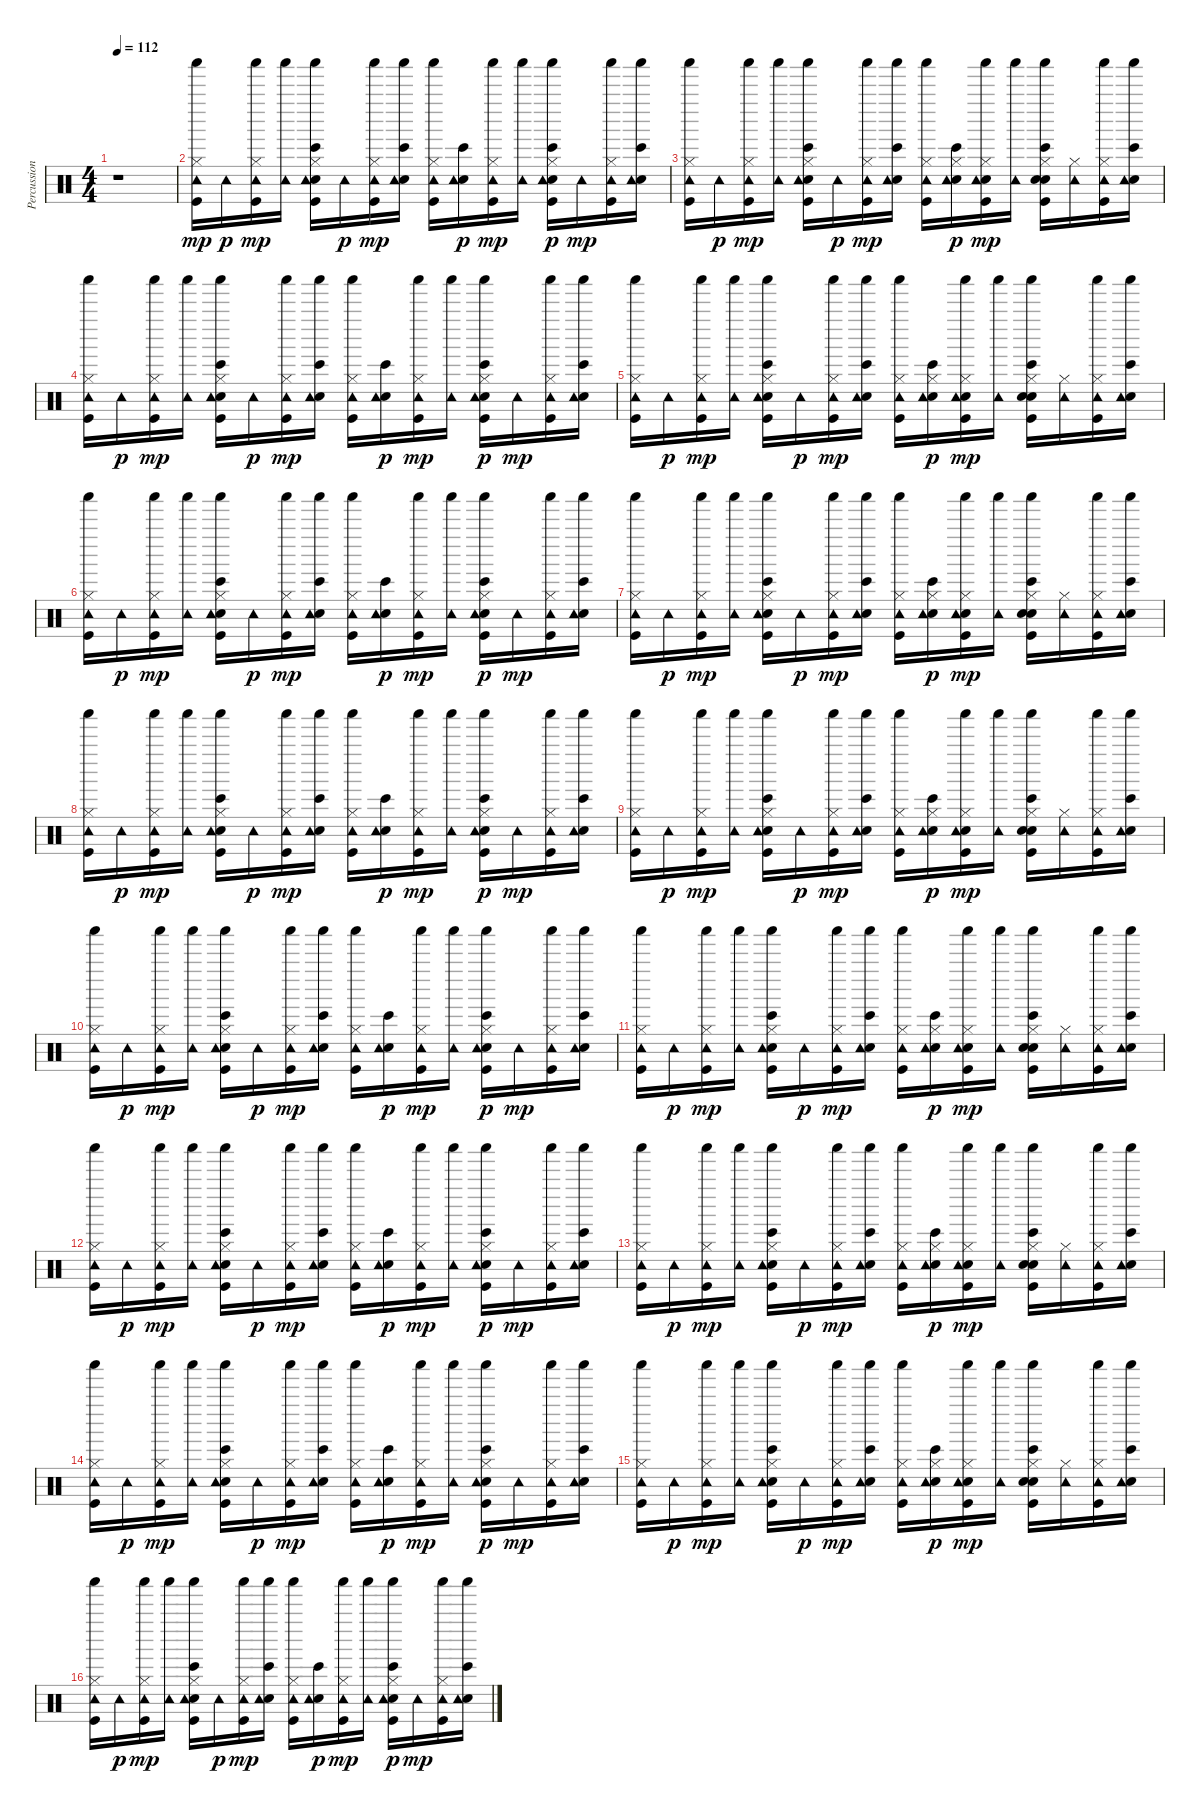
\track ("Percussioni" "Percussion") {instrument percussion}
\staff {score}
\articulation defaults
\ts (4 4)
\tempo 112
\clef neutral
\ks c
r.1{dy mp} |
("Kick (hit)" "Hi-Hat (closed)" "Tambourine (hit)" "Shaker (hit)").16 "Tambourine (hit)".16{dy p} ("Kick (hit)" "Hi-Hat (closed)" "Tambourine (hit)" "Shaker (hit)").16{dy mp} ("Tambourine (hit)" "Shaker (hit)").16 ("Bongo High (hit)" "Kick (hit)" "Electric Snare (hit)" "Hi-Hat (closed)" "Tambourine (hit)" "Shaker (hit)").16 "Tambourine (hit)".16{dy p} ("Kick (hit)" "Hi-Hat (closed)" "Tambourine (hit)" "Shaker (hit)").16{dy mp} ("Bongo High (hit)" "Electric Snare (hit)" "Tambourine (hit)" "Shaker (hit)").16 ("Kick (hit)" "Hi-Hat (closed)" "Tambourine (hit)" "Shaker (hit)").16 ("Bongo High (hit)" "Electric Snare (hit)" "Tambourine (hit)").16{dy p} ("Kick (hit)" "Hi-Hat (closed)" "Tambourine (hit)" "Shaker (hit)").16{dy mp} ("Tambourine (hit)" "Shaker (hit)").16 ("Bongo High (hit)" "Kick (hit)" "Electric Snare (hit)" "Hi-Hat (closed)" "Shaker (hit)" "Tambourine (hit)").16{dy p} "Tambourine (hit)".16{dy mp} ("Kick (hit)" "Hi-Hat (closed)" "Tambourine (hit)" "Shaker (hit)").16 ("Bongo High (hit)" "Electric Snare (hit)" "Tambourine (hit)" "Shaker (hit)").16 |
("Kick (hit)" "Hi-Hat (closed)" "Tambourine (hit)" "Shaker (hit)").16 "Tambourine (hit)".16{dy p} ("Kick (hit)" "Hi-Hat (closed)" "Tambourine (hit)" "Shaker (hit)").16{dy mp} ("Tambourine (hit)" "Shaker (hit)").16 ("Bongo High (hit)" "Kick (hit)" "Electric Snare (hit)" "Hi-Hat (closed)" "Tambourine (hit)" "Shaker (hit)").16 "Tambourine (hit)".16{dy p} ("Kick (hit)" "Hi-Hat (closed)" "Tambourine (hit)" "Shaker (hit)").16{dy mp} ("Bongo High (hit)" "Electric Snare (hit)" "Tambourine (hit)" "Shaker (hit)").16 ("Kick (hit)" "Hi-Hat (closed)" "Tambourine (hit)" "Shaker (hit)").16 ("Bongo High (hit)" "Electric Snare (hit)" "Hi-Hat (closed)" "Tambourine (hit)").16{dy p} ("Kick (hit)" "Hand Clap (hit)" "Hi-Hat (closed)" "Tambourine (hit)" "Shaker (hit)").16{dy mp} ("Tambourine (hit)" "Shaker (hit)").16 ("Bongo High (hit)" "Kick (hit)" "Hand Clap (hit)" "Electric Snare (hit)" "Hi-Hat (closed)" "Shaker (hit)").16 ("Hi-Hat (closed)" "Tambourine (hit)").16 ("Kick (hit)" "Hi-Hat (closed)" "Tambourine (hit)" "Shaker (hit)").16 ("Bongo High (hit)" "Electric Snare (hit)" "Tambourine (hit)" "Shaker (hit)").16 |
("Kick (hit)" "Hi-Hat (closed)" "Tambourine (hit)" "Shaker (hit)").16 "Tambourine (hit)".16{dy p} ("Kick (hit)" "Hi-Hat (closed)" "Tambourine (hit)" "Shaker (hit)").16{dy mp} ("Tambourine (hit)" "Shaker (hit)").16 ("Bongo High (hit)" "Kick (hit)" "Electric Snare (hit)" "Hi-Hat (closed)" "Tambourine (hit)" "Shaker (hit)").16 "Tambourine (hit)".16{dy p} ("Kick (hit)" "Hi-Hat (closed)" "Tambourine (hit)" "Shaker (hit)").16{dy mp} ("Bongo High (hit)" "Electric Snare (hit)" "Tambourine (hit)" "Shaker (hit)").16 ("Kick (hit)" "Hi-Hat (closed)" "Tambourine (hit)" "Shaker (hit)").16 ("Bongo High (hit)" "Electric Snare (hit)" "Tambourine (hit)").16{dy p} ("Kick (hit)" "Hi-Hat (closed)" "Tambourine (hit)" "Shaker (hit)").16{dy mp} ("Tambourine (hit)" "Shaker (hit)").16 ("Bongo High (hit)" "Kick (hit)" "Electric Snare (hit)" "Hi-Hat (closed)" "Shaker (hit)" "Tambourine (hit)").16{dy p} "Tambourine (hit)".16{dy mp} ("Kick (hit)" "Hi-Hat (closed)" "Tambourine (hit)" "Shaker (hit)").16 ("Bongo High (hit)" "Electric Snare (hit)" "Tambourine (hit)" "Shaker (hit)").16 |
("Kick (hit)" "Hi-Hat (closed)" "Tambourine (hit)" "Shaker (hit)").16 "Tambourine (hit)".16{dy p} ("Kick (hit)" "Hi-Hat (closed)" "Tambourine (hit)" "Shaker (hit)").16{dy mp} ("Tambourine (hit)" "Shaker (hit)").16 ("Bongo High (hit)" "Kick (hit)" "Electric Snare (hit)" "Hi-Hat (closed)" "Tambourine (hit)" "Shaker (hit)").16 "Tambourine (hit)".16{dy p} ("Kick (hit)" "Hi-Hat (closed)" "Tambourine (hit)" "Shaker (hit)").16{dy mp} ("Bongo High (hit)" "Electric Snare (hit)" "Tambourine (hit)" "Shaker (hit)").16 ("Kick (hit)" "Hi-Hat (closed)" "Tambourine (hit)" "Shaker (hit)").16 ("Bongo High (hit)" "Electric Snare (hit)" "Hi-Hat (closed)" "Tambourine (hit)").16{dy p} ("Kick (hit)" "Hand Clap (hit)" "Hi-Hat (closed)" "Tambourine (hit)" "Shaker (hit)").16{dy mp} ("Tambourine (hit)" "Shaker (hit)").16 ("Bongo High (hit)" "Kick (hit)" "Hand Clap (hit)" "Electric Snare (hit)" "Hi-Hat (closed)" "Shaker (hit)").16 ("Hi-Hat (closed)" "Tambourine (hit)").16 ("Kick (hit)" "Hi-Hat (closed)" "Tambourine (hit)" "Shaker (hit)").16 ("Bongo High (hit)" "Electric Snare (hit)" "Tambourine (hit)" "Shaker (hit)").16 |
("Kick (hit)" "Hi-Hat (closed)" "Tambourine (hit)" "Shaker (hit)").16 "Tambourine (hit)".16{dy p} ("Kick (hit)" "Hi-Hat (closed)" "Tambourine (hit)" "Shaker (hit)").16{dy mp} ("Tambourine (hit)" "Shaker (hit)").16 ("Bongo High (hit)" "Kick (hit)" "Electric Snare (hit)" "Hi-Hat (closed)" "Tambourine (hit)" "Shaker (hit)").16 "Tambourine (hit)".16{dy p} ("Kick (hit)" "Hi-Hat (closed)" "Tambourine (hit)" "Shaker (hit)").16{dy mp} ("Bongo High (hit)" "Electric Snare (hit)" "Tambourine (hit)" "Shaker (hit)").16 ("Kick (hit)" "Hi-Hat (closed)" "Tambourine (hit)" "Shaker (hit)").16 ("Bongo High (hit)" "Electric Snare (hit)" "Tambourine (hit)").16{dy p} ("Kick (hit)" "Hi-Hat (closed)" "Tambourine (hit)" "Shaker (hit)").16{dy mp} ("Tambourine (hit)" "Shaker (hit)").16 ("Bongo High (hit)" "Kick (hit)" "Electric Snare (hit)" "Hi-Hat (closed)" "Shaker (hit)" "Tambourine (hit)").16{dy p} "Tambourine (hit)".16{dy mp} ("Kick (hit)" "Hi-Hat (closed)" "Tambourine (hit)" "Shaker (hit)").16 ("Bongo High (hit)" "Electric Snare (hit)" "Tambourine (hit)" "Shaker (hit)").16 |
("Kick (hit)" "Hi-Hat (closed)" "Tambourine (hit)" "Shaker (hit)").16 "Tambourine (hit)".16{dy p} ("Kick (hit)" "Hi-Hat (closed)" "Tambourine (hit)" "Shaker (hit)").16{dy mp} ("Tambourine (hit)" "Shaker (hit)").16 ("Bongo High (hit)" "Kick (hit)" "Electric Snare (hit)" "Hi-Hat (closed)" "Tambourine (hit)" "Shaker (hit)").16 "Tambourine (hit)".16{dy p} ("Kick (hit)" "Hi-Hat (closed)" "Tambourine (hit)" "Shaker (hit)").16{dy mp} ("Bongo High (hit)" "Electric Snare (hit)" "Tambourine (hit)" "Shaker (hit)").16 ("Kick (hit)" "Hi-Hat (closed)" "Tambourine (hit)" "Shaker (hit)").16 ("Bongo High (hit)" "Electric Snare (hit)" "Hi-Hat (closed)" "Tambourine (hit)").16{dy p} ("Kick (hit)" "Hand Clap (hit)" "Hi-Hat (closed)" "Tambourine (hit)" "Shaker (hit)").16{dy mp} ("Tambourine (hit)" "Shaker (hit)").16 ("Bongo High (hit)" "Kick (hit)" "Hand Clap (hit)" "Electric Snare (hit)" "Hi-Hat (closed)" "Shaker (hit)").16 ("Hi-Hat (closed)" "Tambourine (hit)").16 ("Kick (hit)" "Hi-Hat (closed)" "Tambourine (hit)" "Shaker (hit)").16 ("Bongo High (hit)" "Electric Snare (hit)" "Tambourine (hit)" "Shaker (hit)").16 |
("Kick (hit)" "Hi-Hat (closed)" "Tambourine (hit)" "Shaker (hit)").16 "Tambourine (hit)".16{dy p} ("Kick (hit)" "Hi-Hat (closed)" "Tambourine (hit)" "Shaker (hit)").16{dy mp} ("Tambourine (hit)" "Shaker (hit)").16 ("Bongo High (hit)" "Kick (hit)" "Electric Snare (hit)" "Hi-Hat (closed)" "Tambourine (hit)" "Shaker (hit)").16 "Tambourine (hit)".16{dy p} ("Kick (hit)" "Hi-Hat (closed)" "Tambourine (hit)" "Shaker (hit)").16{dy mp} ("Bongo High (hit)" "Electric Snare (hit)" "Tambourine (hit)" "Shaker (hit)").16 ("Kick (hit)" "Hi-Hat (closed)" "Tambourine (hit)" "Shaker (hit)").16 ("Bongo High (hit)" "Electric Snare (hit)" "Tambourine (hit)").16{dy p} ("Kick (hit)" "Hi-Hat (closed)" "Tambourine (hit)" "Shaker (hit)").16{dy mp} ("Tambourine (hit)" "Shaker (hit)").16 ("Bongo High (hit)" "Kick (hit)" "Electric Snare (hit)" "Hi-Hat (closed)" "Shaker (hit)" "Tambourine (hit)").16{dy p} "Tambourine (hit)".16{dy mp} ("Kick (hit)" "Hi-Hat (closed)" "Tambourine (hit)" "Shaker (hit)").16 ("Bongo High (hit)" "Electric Snare (hit)" "Tambourine (hit)" "Shaker (hit)").16 |
("Kick (hit)" "Hi-Hat (closed)" "Tambourine (hit)" "Shaker (hit)").16 "Tambourine (hit)".16{dy p} ("Kick (hit)" "Hi-Hat (closed)" "Tambourine (hit)" "Shaker (hit)").16{dy mp} ("Tambourine (hit)" "Shaker (hit)").16 ("Bongo High (hit)" "Kick (hit)" "Electric Snare (hit)" "Hi-Hat (closed)" "Tambourine (hit)" "Shaker (hit)").16 "Tambourine (hit)".16{dy p} ("Kick (hit)" "Hi-Hat (closed)" "Tambourine (hit)" "Shaker (hit)").16{dy mp} ("Bongo High (hit)" "Electric Snare (hit)" "Tambourine (hit)" "Shaker (hit)").16 ("Kick (hit)" "Hi-Hat (closed)" "Tambourine (hit)" "Shaker (hit)").16 ("Bongo High (hit)" "Electric Snare (hit)" "Hi-Hat (closed)" "Tambourine (hit)").16{dy p} ("Kick (hit)" "Hand Clap (hit)" "Hi-Hat (closed)" "Tambourine (hit)" "Shaker (hit)").16{dy mp} ("Tambourine (hit)" "Shaker (hit)").16 ("Bongo High (hit)" "Kick (hit)" "Hand Clap (hit)" "Electric Snare (hit)" "Hi-Hat (closed)" "Shaker (hit)").16 ("Hi-Hat (closed)" "Tambourine (hit)").16 ("Kick (hit)" "Hi-Hat (closed)" "Tambourine (hit)" "Shaker (hit)").16 ("Bongo High (hit)" "Electric Snare (hit)" "Tambourine (hit)" "Shaker (hit)").16 |
("Kick (hit)" "Hi-Hat (closed)" "Tambourine (hit)" "Shaker (hit)").16 "Tambourine (hit)".16{dy p} ("Kick (hit)" "Hi-Hat (closed)" "Tambourine (hit)" "Shaker (hit)").16{dy mp} ("Tambourine (hit)" "Shaker (hit)").16 ("Bongo High (hit)" "Kick (hit)" "Electric Snare (hit)" "Hi-Hat (closed)" "Tambourine (hit)" "Shaker (hit)").16 "Tambourine (hit)".16{dy p} ("Kick (hit)" "Hi-Hat (closed)" "Tambourine (hit)" "Shaker (hit)").16{dy mp} ("Bongo High (hit)" "Electric Snare (hit)" "Tambourine (hit)" "Shaker (hit)").16 ("Kick (hit)" "Hi-Hat (closed)" "Tambourine (hit)" "Shaker (hit)").16 ("Bongo High (hit)" "Electric Snare (hit)" "Tambourine (hit)").16{dy p} ("Kick (hit)" "Hi-Hat (closed)" "Tambourine (hit)" "Shaker (hit)").16{dy mp} ("Tambourine (hit)" "Shaker (hit)").16 ("Bongo High (hit)" "Kick (hit)" "Electric Snare (hit)" "Hi-Hat (closed)" "Shaker (hit)" "Tambourine (hit)").16{dy p} "Tambourine (hit)".16{dy mp} ("Kick (hit)" "Hi-Hat (closed)" "Tambourine (hit)" "Shaker (hit)").16 ("Bongo High (hit)" "Electric Snare (hit)" "Tambourine (hit)" "Shaker (hit)").16 |
("Kick (hit)" "Hi-Hat (closed)" "Tambourine (hit)" "Shaker (hit)").16 "Tambourine (hit)".16{dy p} ("Kick (hit)" "Hi-Hat (closed)" "Tambourine (hit)" "Shaker (hit)").16{dy mp} ("Tambourine (hit)" "Shaker (hit)").16 ("Bongo High (hit)" "Kick (hit)" "Electric Snare (hit)" "Hi-Hat (closed)" "Tambourine (hit)" "Shaker (hit)").16 "Tambourine (hit)".16{dy p} ("Kick (hit)" "Hi-Hat (closed)" "Tambourine (hit)" "Shaker (hit)").16{dy mp} ("Bongo High (hit)" "Electric Snare (hit)" "Tambourine (hit)" "Shaker (hit)").16 ("Kick (hit)" "Hi-Hat (closed)" "Tambourine (hit)" "Shaker (hit)").16 ("Bongo High (hit)" "Electric Snare (hit)" "Hi-Hat (closed)" "Tambourine (hit)").16{dy p} ("Kick (hit)" "Hand Clap (hit)" "Hi-Hat (closed)" "Tambourine (hit)" "Shaker (hit)").16{dy mp} ("Tambourine (hit)" "Shaker (hit)").16 ("Bongo High (hit)" "Kick (hit)" "Hand Clap (hit)" "Electric Snare (hit)" "Hi-Hat (closed)" "Shaker (hit)").16 ("Hi-Hat (closed)" "Tambourine (hit)").16 ("Kick (hit)" "Hi-Hat (closed)" "Tambourine (hit)" "Shaker (hit)").16 ("Bongo High (hit)" "Electric Snare (hit)" "Tambourine (hit)" "Shaker (hit)").16 |
("Kick (hit)" "Hi-Hat (closed)" "Tambourine (hit)" "Shaker (hit)").16 "Tambourine (hit)".16{dy p} ("Kick (hit)" "Hi-Hat (closed)" "Tambourine (hit)" "Shaker (hit)").16{dy mp} ("Tambourine (hit)" "Shaker (hit)").16 ("Bongo High (hit)" "Kick (hit)" "Electric Snare (hit)" "Hi-Hat (closed)" "Tambourine (hit)" "Shaker (hit)").16 "Tambourine (hit)".16{dy p} ("Kick (hit)" "Hi-Hat (closed)" "Tambourine (hit)" "Shaker (hit)").16{dy mp} ("Bongo High (hit)" "Electric Snare (hit)" "Tambourine (hit)" "Shaker (hit)").16 ("Kick (hit)" "Hi-Hat (closed)" "Tambourine (hit)" "Shaker (hit)").16 ("Bongo High (hit)" "Electric Snare (hit)" "Tambourine (hit)").16{dy p} ("Kick (hit)" "Hi-Hat (closed)" "Tambourine (hit)" "Shaker (hit)").16{dy mp} ("Tambourine (hit)" "Shaker (hit)").16 ("Bongo High (hit)" "Kick (hit)" "Electric Snare (hit)" "Hi-Hat (closed)" "Shaker (hit)" "Tambourine (hit)").16{dy p} "Tambourine (hit)".16{dy mp} ("Kick (hit)" "Hi-Hat (closed)" "Tambourine (hit)" "Shaker (hit)").16 ("Bongo High (hit)" "Electric Snare (hit)" "Tambourine (hit)" "Shaker (hit)").16 |
("Kick (hit)" "Hi-Hat (closed)" "Tambourine (hit)" "Shaker (hit)").16 "Tambourine (hit)".16{dy p} ("Kick (hit)" "Hi-Hat (closed)" "Tambourine (hit)" "Shaker (hit)").16{dy mp} ("Tambourine (hit)" "Shaker (hit)").16 ("Bongo High (hit)" "Kick (hit)" "Electric Snare (hit)" "Hi-Hat (closed)" "Tambourine (hit)" "Shaker (hit)").16 "Tambourine (hit)".16{dy p} ("Kick (hit)" "Hi-Hat (closed)" "Tambourine (hit)" "Shaker (hit)").16{dy mp} ("Bongo High (hit)" "Electric Snare (hit)" "Tambourine (hit)" "Shaker (hit)").16 ("Kick (hit)" "Hi-Hat (closed)" "Tambourine (hit)" "Shaker (hit)").16 ("Bongo High (hit)" "Electric Snare (hit)" "Hi-Hat (closed)" "Tambourine (hit)").16{dy p} ("Kick (hit)" "Hand Clap (hit)" "Hi-Hat (closed)" "Tambourine (hit)" "Shaker (hit)").16{dy mp} ("Tambourine (hit)" "Shaker (hit)").16 ("Bongo High (hit)" "Kick (hit)" "Hand Clap (hit)" "Electric Snare (hit)" "Hi-Hat (closed)" "Shaker (hit)").16 ("Hi-Hat (closed)" "Tambourine (hit)").16 ("Kick (hit)" "Hi-Hat (closed)" "Tambourine (hit)" "Shaker (hit)").16 ("Bongo High (hit)" "Electric Snare (hit)" "Tambourine (hit)" "Shaker (hit)").16 |
("Kick (hit)" "Hi-Hat (closed)" "Tambourine (hit)" "Shaker (hit)").16 "Tambourine (hit)".16{dy p} ("Kick (hit)" "Hi-Hat (closed)" "Tambourine (hit)" "Shaker (hit)").16{dy mp} ("Tambourine (hit)" "Shaker (hit)").16 ("Bongo High (hit)" "Kick (hit)" "Electric Snare (hit)" "Hi-Hat (closed)" "Tambourine (hit)" "Shaker (hit)").16 "Tambourine (hit)".16{dy p} ("Kick (hit)" "Hi-Hat (closed)" "Tambourine (hit)" "Shaker (hit)").16{dy mp} ("Bongo High (hit)" "Electric Snare (hit)" "Tambourine (hit)" "Shaker (hit)").16 ("Kick (hit)" "Hi-Hat (closed)" "Tambourine (hit)" "Shaker (hit)").16 ("Bongo High (hit)" "Electric Snare (hit)" "Tambourine (hit)").16{dy p} ("Kick (hit)" "Hi-Hat (closed)" "Tambourine (hit)" "Shaker (hit)").16{dy mp} ("Tambourine (hit)" "Shaker (hit)").16 ("Bongo High (hit)" "Kick (hit)" "Electric Snare (hit)" "Hi-Hat (closed)" "Shaker (hit)" "Tambourine (hit)").16{dy p} "Tambourine (hit)".16{dy mp} ("Kick (hit)" "Hi-Hat (closed)" "Tambourine (hit)" "Shaker (hit)").16 ("Bongo High (hit)" "Electric Snare (hit)" "Tambourine (hit)" "Shaker (hit)").16 |
("Kick (hit)" "Hi-Hat (closed)" "Tambourine (hit)" "Shaker (hit)").16 "Tambourine (hit)".16{dy p} ("Kick (hit)" "Hi-Hat (closed)" "Tambourine (hit)" "Shaker (hit)").16{dy mp} ("Tambourine (hit)" "Shaker (hit)").16 ("Bongo High (hit)" "Kick (hit)" "Electric Snare (hit)" "Hi-Hat (closed)" "Tambourine (hit)" "Shaker (hit)").16 "Tambourine (hit)".16{dy p} ("Kick (hit)" "Hi-Hat (closed)" "Tambourine (hit)" "Shaker (hit)").16{dy mp} ("Bongo High (hit)" "Electric Snare (hit)" "Tambourine (hit)" "Shaker (hit)").16 ("Kick (hit)" "Hi-Hat (closed)" "Tambourine (hit)" "Shaker (hit)").16 ("Bongo High (hit)" "Electric Snare (hit)" "Hi-Hat (closed)" "Tambourine (hit)").16{dy p} ("Kick (hit)" "Hand Clap (hit)" "Hi-Hat (closed)" "Tambourine (hit)" "Shaker (hit)").16{dy mp} ("Tambourine (hit)" "Shaker (hit)").16 ("Bongo High (hit)" "Kick (hit)" "Hand Clap (hit)" "Electric Snare (hit)" "Hi-Hat (closed)" "Shaker (hit)").16 ("Hi-Hat (closed)" "Tambourine (hit)").16 ("Kick (hit)" "Hi-Hat (closed)" "Tambourine (hit)" "Shaker (hit)").16 ("Bongo High (hit)" "Electric Snare (hit)" "Tambourine (hit)" "Shaker (hit)").16 |
("Kick (hit)" "Hi-Hat (closed)" "Tambourine (hit)" "Shaker (hit)").16 "Tambourine (hit)".16{dy p} ("Kick (hit)" "Hi-Hat (closed)" "Tambourine (hit)" "Shaker (hit)").16{dy mp} ("Tambourine (hit)" "Shaker (hit)").16 ("Bongo High (hit)" "Kick (hit)" "Electric Snare (hit)" "Hi-Hat (closed)" "Tambourine (hit)" "Shaker (hit)").16 "Tambourine (hit)".16{dy p} ("Kick (hit)" "Hi-Hat (closed)" "Tambourine (hit)" "Shaker (hit)").16{dy mp} ("Bongo High (hit)" "Electric Snare (hit)" "Tambourine (hit)" "Shaker (hit)").16 ("Kick (hit)" "Hi-Hat (closed)" "Tambourine (hit)" "Shaker (hit)").16 ("Bongo High (hit)" "Electric Snare (hit)" "Tambourine (hit)").16{dy p} ("Kick (hit)" "Hi-Hat (closed)" "Tambourine (hit)" "Shaker (hit)").16{dy mp} ("Tambourine (hit)" "Shaker (hit)").16 ("Bongo High (hit)" "Kick (hit)" "Electric Snare (hit)" "Hi-Hat (closed)" "Shaker (hit)" "Tambourine (hit)").16{dy p} "Tambourine (hit)".16{dy mp} ("Kick (hit)" "Hi-Hat (closed)" "Tambourine (hit)" "Shaker (hit)").16 ("Bongo High (hit)" "Electric Snare (hit)" "Tambourine (hit)" "Shaker (hit)").16
